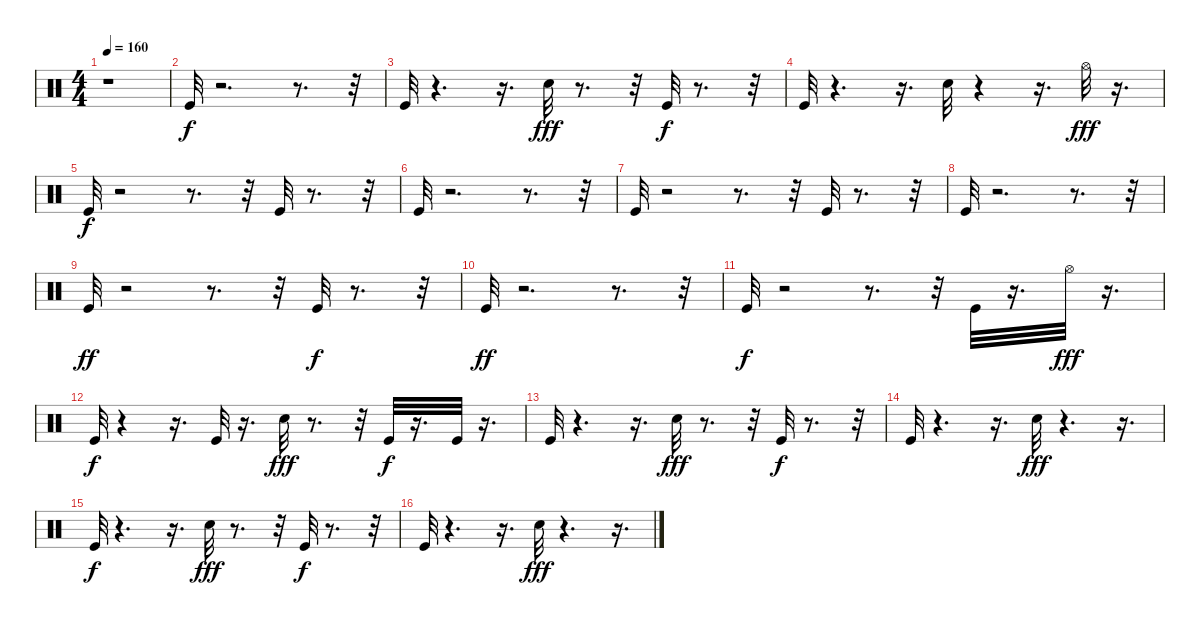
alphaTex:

\track "" {instrument percussion}
\staff {score}
\articulation defaults
\ts (4 4)
\tempo 160
\clef neutral
\ks c
r.1{dy f} |
"Kick (hit)".32 r.2{d} r.8{d} r.32 |
"Kick (hit)".32 r.4{d} r.16{d} "Electric Snare (hit)".32{dy fff} r.8{d} r.32 "Kick (hit)".32{dy f} r.8{d} r.32 |
"Kick (hit)".32 r.4{d} r.16{d} "Electric Snare (hit)".32 r.4 r.16{d} "Hi-Hat (open)".32{dy fff} r.16{d} |
"Kick (hit)".32{dy f} r.2 r.8{d} r.32 "Kick (hit)".32 r.8{d} r.32 |
"Kick (hit)".32 r.2{d} r.8{d} r.32 |
"Kick (hit)".32 r.2 r.8{d} r.32 "Kick (hit)".32 r.8{d} r.32 |
"Kick (hit)".32 r.2{d} r.8{d} r.32 |
"Kick (hit)".32{dy ff} r.2 r.8{d} r.32 "Kick (hit)".32{dy f} r.8{d} r.32 |
"Kick (hit)".32{dy ff} r.2{d} r.8{d} r.32 |
"Kick (hit)".32{dy f} r.2 r.8{d} r.32 "Kick (hit)".32 r.16{d} "Hi-Hat (open)".32{dy fff} r.16{d} |
"Kick (hit)".32{dy f} r.4 r.16{d} "Kick (hit)".32 r.16{d} "Electric Snare (hit)".32{dy fff} r.8{d} r.32 "Kick (hit)".32{dy f} r.16{d} "Kick (hit)".32 r.16{d} |
"Kick (hit)".32 r.4{d} r.16{d} "Electric Snare (hit)".32{dy fff} r.8{d} r.32 "Kick (hit)".32{dy f} r.8{d} r.32 |
"Kick (hit)".32 r.4{d} r.16{d} "Electric Snare (hit)".32{dy fff} r.4{d} r.16{d} |
"Kick (hit)".32{dy f} r.4{d} r.16{d} "Electric Snare (hit)".32{dy fff} r.8{d} r.32 "Kick (hit)".32{dy f} r.8{d} r.32 |
"Kick (hit)".32 r.4{d} r.16{d} "Electric Snare (hit)".32{dy fff} r.4{d} r.16{d}
